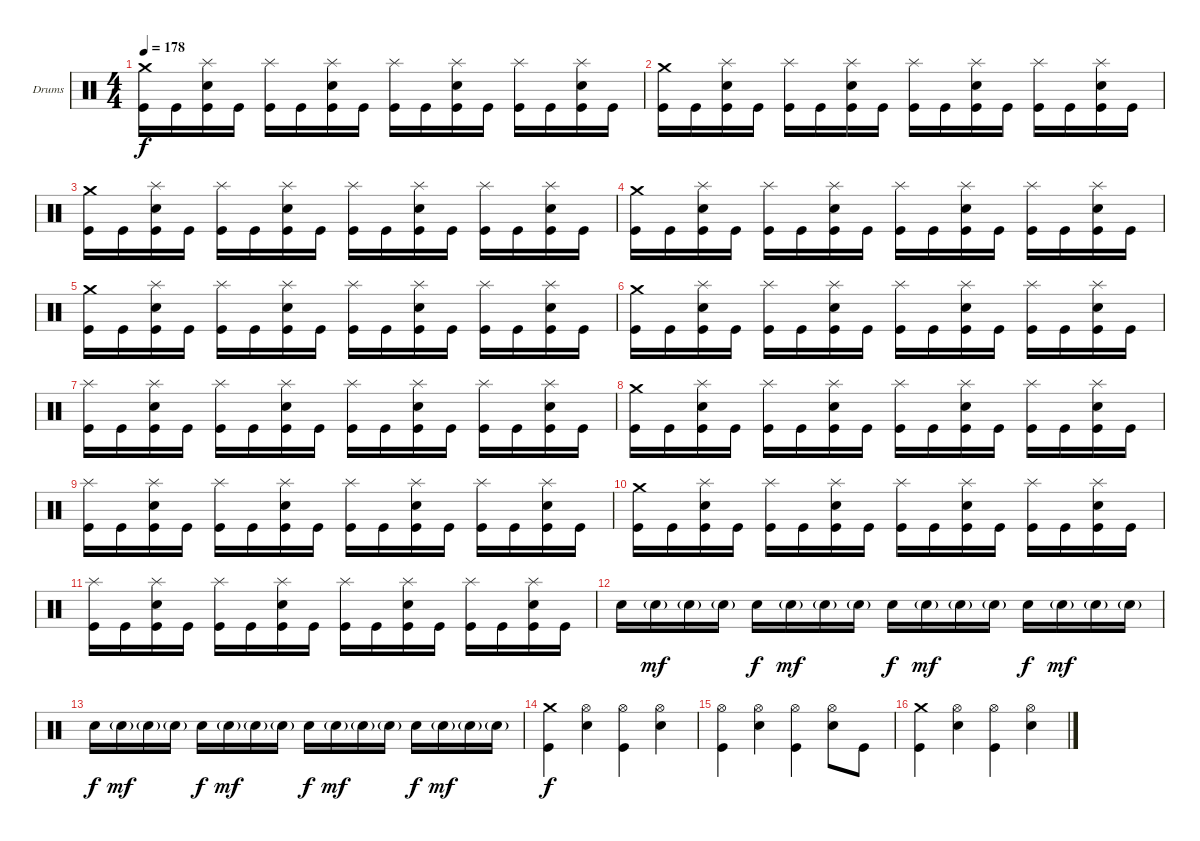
\bracketExtendMode groupsimilarinstruments
\firstSystemTrackNameOrientation horizontal
\otherSystemsTrackNameOrientation horizontal
\track ("Drumkit" "Drums") {instrument percussion}
\staff {score}
\articulation defaults
\ts (4 4)
\tempo 178
\clef neutral
\ks c
("Crash medium (hit)" "Kick (hit)").16{dy f} "Kick (hit)".16 ("Splash (hit)" "Snare (hit) 2" "Kick (hit)").16 "Kick (hit)".16 ("Splash (hit)" "Kick (hit)").16 "Kick (hit)".16 ("Splash (hit)" "Snare (hit) 2" "Kick (hit)").16 "Kick (hit)".16 ("Splash (hit)" "Kick (hit)").16 "Kick (hit)".16 ("Splash (hit)" "Snare (hit) 2" "Kick (hit)").16 "Kick (hit)".16 ("Splash (hit)" "Kick (hit)").16 "Kick (hit)".16 ("Splash (hit)" "Snare (hit) 2" "Kick (hit)").16 "Kick (hit)".16 |
("Crash medium (hit)" "Kick (hit)").16 "Kick (hit)".16 ("Splash (hit)" "Snare (hit) 2" "Kick (hit)").16 "Kick (hit)".16 ("Splash (hit)" "Kick (hit)").16 "Kick (hit)".16 ("Splash (hit)" "Snare (hit) 2" "Kick (hit)").16 "Kick (hit)".16 ("Splash (hit)" "Kick (hit)").16 "Kick (hit)".16 ("Splash (hit)" "Snare (hit) 2" "Kick (hit)").16 "Kick (hit)".16 ("Splash (hit)" "Kick (hit)").16 "Kick (hit)".16 ("Splash (hit)" "Snare (hit) 2" "Kick (hit)").16 "Kick (hit)".16 |
("Crash medium (hit)" "Kick (hit)").16 "Kick (hit)".16 ("Splash (hit)" "Snare (hit) 2" "Kick (hit)").16 "Kick (hit)".16 ("Splash (hit)" "Kick (hit)").16 "Kick (hit)".16 ("Splash (hit)" "Snare (hit) 2" "Kick (hit)").16 "Kick (hit)".16 ("Splash (hit)" "Kick (hit)").16 "Kick (hit)".16 ("Splash (hit)" "Snare (hit) 2" "Kick (hit)").16 "Kick (hit)".16 ("Splash (hit)" "Kick (hit)").16 "Kick (hit)".16 ("Splash (hit)" "Snare (hit) 2" "Kick (hit)").16 "Kick (hit)".16 |
("Crash medium (hit)" "Kick (hit)").16 "Kick (hit)".16 ("Splash (hit)" "Snare (hit) 2" "Kick (hit)").16 "Kick (hit)".16 ("Splash (hit)" "Kick (hit)").16 "Kick (hit)".16 ("Splash (hit)" "Snare (hit) 2" "Kick (hit)").16 "Kick (hit)".16 ("Splash (hit)" "Kick (hit)").16 "Kick (hit)".16 ("Splash (hit)" "Snare (hit) 2" "Kick (hit)").16 "Kick (hit)".16 ("Splash (hit)" "Kick (hit)").16 "Kick (hit)".16 ("Splash (hit)" "Snare (hit) 2" "Kick (hit)").16 "Kick (hit)".16 |
("Crash medium (hit)" "Kick (hit)").16 "Kick (hit)".16 ("Splash (hit)" "Snare (hit) 2" "Kick (hit)").16 "Kick (hit)".16 ("Splash (hit)" "Kick (hit)").16 "Kick (hit)".16 ("Splash (hit)" "Snare (hit) 2" "Kick (hit)").16 "Kick (hit)".16 ("Splash (hit)" "Kick (hit)").16 "Kick (hit)".16 ("Splash (hit)" "Snare (hit) 2" "Kick (hit)").16 "Kick (hit)".16 ("Splash (hit)" "Kick (hit)").16 "Kick (hit)".16 ("Splash (hit)" "Snare (hit) 2" "Kick (hit)").16 "Kick (hit)".16 |
("Crash medium (hit)" "Kick (hit)").16 "Kick (hit)".16 ("Splash (hit)" "Snare (hit) 2" "Kick (hit)").16 "Kick (hit)".16 ("Splash (hit)" "Kick (hit)").16 "Kick (hit)".16 ("Splash (hit)" "Snare (hit) 2" "Kick (hit)").16 "Kick (hit)".16 ("Splash (hit)" "Kick (hit)").16 "Kick (hit)".16 ("Splash (hit)" "Snare (hit) 2" "Kick (hit)").16 "Kick (hit)".16 ("Splash (hit)" "Kick (hit)").16 "Kick (hit)".16 ("Splash (hit)" "Snare (hit) 2" "Kick (hit)").16 "Kick (hit)".16 |
("Splash (hit)" "Kick (hit)").16 "Kick (hit)".16 ("Splash (hit)" "Snare (hit) 2" "Kick (hit)").16 "Kick (hit)".16 ("Splash (hit)" "Kick (hit)").16 "Kick (hit)".16 ("Splash (hit)" "Snare (hit) 2" "Kick (hit)").16 "Kick (hit)".16 ("Splash (hit)" "Kick (hit)").16 "Kick (hit)".16 ("Splash (hit)" "Snare (hit) 2" "Kick (hit)").16 "Kick (hit)".16 ("Splash (hit)" "Kick (hit)").16 "Kick (hit)".16 ("Splash (hit)" "Snare (hit) 2" "Kick (hit)").16 "Kick (hit)".16 |
("Crash medium (hit)" "Kick (hit)").16 "Kick (hit)".16 ("Splash (hit)" "Snare (hit) 2" "Kick (hit)").16 "Kick (hit)".16 ("Splash (hit)" "Kick (hit)").16 "Kick (hit)".16 ("Splash (hit)" "Snare (hit) 2" "Kick (hit)").16 "Kick (hit)".16 ("Splash (hit)" "Kick (hit)").16 "Kick (hit)".16 ("Splash (hit)" "Snare (hit) 2" "Kick (hit)").16 "Kick (hit)".16 ("Splash (hit)" "Kick (hit)").16 "Kick (hit)".16 ("Splash (hit)" "Snare (hit) 2" "Kick (hit)").16 "Kick (hit)".16 |
("Splash (hit)" "Kick (hit)").16 "Kick (hit)".16 ("Splash (hit)" "Snare (hit) 2" "Kick (hit)").16 "Kick (hit)".16 ("Splash (hit)" "Kick (hit)").16 "Kick (hit)".16 ("Splash (hit)" "Snare (hit) 2" "Kick (hit)").16 "Kick (hit)".16 ("Splash (hit)" "Kick (hit)").16 "Kick (hit)".16 ("Splash (hit)" "Snare (hit) 2" "Kick (hit)").16 "Kick (hit)".16 ("Splash (hit)" "Kick (hit)").16 "Kick (hit)".16 ("Splash (hit)" "Snare (hit) 2" "Kick (hit)").16 "Kick (hit)".16 |
("Crash medium (hit)" "Kick (hit)").16 "Kick (hit)".16 ("Splash (hit)" "Snare (hit) 2" "Kick (hit)").16 "Kick (hit)".16 ("Splash (hit)" "Kick (hit)").16 "Kick (hit)".16 ("Splash (hit)" "Snare (hit) 2" "Kick (hit)").16 "Kick (hit)".16 ("Splash (hit)" "Kick (hit)").16 "Kick (hit)".16 ("Splash (hit)" "Snare (hit) 2" "Kick (hit)").16 "Kick (hit)".16 ("Splash (hit)" "Kick (hit)").16 "Kick (hit)".16 ("Splash (hit)" "Snare (hit) 2" "Kick (hit)").16 "Kick (hit)".16 |
("Splash (hit)" "Kick (hit)").16 "Kick (hit)".16 ("Splash (hit)" "Snare (hit) 2" "Kick (hit)").16 "Kick (hit)".16 ("Splash (hit)" "Kick (hit)").16 "Kick (hit)".16 ("Splash (hit)" "Snare (hit) 2" "Kick (hit)").16 "Kick (hit)".16 ("Splash (hit)" "Kick (hit)").16 "Kick (hit)".16 ("Splash (hit)" "Snare (hit) 2" "Kick (hit)").16 "Kick (hit)".16 ("Splash (hit)" "Kick (hit)").16 "Kick (hit)".16 ("Splash (hit)" "Snare (hit) 2" "Kick (hit)").16 "Kick (hit)".16 |
"Snare (hit) 2".16 "Snare (hit) 2"{g}.16{dy mf} "Snare (hit) 2"{g}.16 "Snare (hit) 2"{g}.16 "Snare (hit) 2".16{dy f} "Snare (hit) 2"{g}.16{dy mf} "Snare (hit) 2"{g}.16 "Snare (hit) 2"{g}.16 "Snare (hit) 2".16{dy f} "Snare (hit) 2"{g}.16{dy mf} "Snare (hit) 2"{g}.16 "Snare (hit) 2"{g}.16 "Snare (hit) 2".16{dy f} "Snare (hit) 2"{g}.16{dy mf} "Snare (hit) 2"{g}.16 "Snare (hit) 2"{g}.16 |
"Snare (hit) 2".16{dy f} "Snare (hit) 2"{g}.16{dy mf} "Snare (hit) 2"{g}.16 "Snare (hit) 2"{g}.16 "Snare (hit) 2".16{dy f} "Snare (hit) 2"{g}.16{dy mf} "Snare (hit) 2"{g}.16 "Snare (hit) 2"{g}.16 "Snare (hit) 2".16{dy f} "Snare (hit) 2"{g}.16{dy mf} "Snare (hit) 2"{g}.16 "Snare (hit) 2"{g}.16 "Snare (hit) 2".16{dy f} "Snare (hit) 2"{g}.16{dy mf} "Snare (hit) 2"{g}.16 "Snare (hit) 2"{g}.16 |
("Crash medium (hit)" "Kick (hit)").4{dy f} ("Hi-Hat (open)" "Snare (hit) 2").4 ("Hi-Hat (open)" "Kick (hit)").4 ("Hi-Hat (open)" "Snare (hit) 2").4 |
("Hi-Hat (open)" "Kick (hit)").4 ("Hi-Hat (open)" "Snare (hit) 2").4 ("Hi-Hat (open)" "Kick (hit)").4 ("Hi-Hat (open)" "Snare (hit) 2").8 "Kick (hit)".8 |
("Crash medium (hit)" "Kick (hit)").4 ("Hi-Hat (open)" "Snare (hit) 2").4 ("Hi-Hat (open)" "Kick (hit)").4 ("Hi-Hat (open)" "Snare (hit) 2").4
